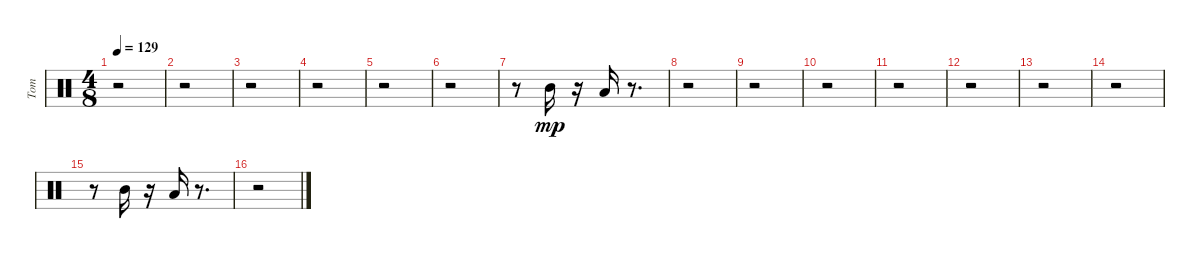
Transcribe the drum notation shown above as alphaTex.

\track ("Tom" "Tom") {instrument percussion}
\staff {score}
\articulation defaults
\ts (4 8)
\tempo 129
\clef neutral
\ks c
r.2{dy mp} |
r.2 |
r.2 |
r.2 |
r.2 |
r.2 |
r.8 "Mid Tom (hit)".16 r.16 "Low Tom (hit)".16 r.8{d} |
r.2 |
r.2 |
r.2 |
r.2 |
r.2 |
r.2 |
r.2 |
r.8 "Mid Tom (hit)".16 r.16 "Low Tom (hit)".16 r.8{d} |
r.2
